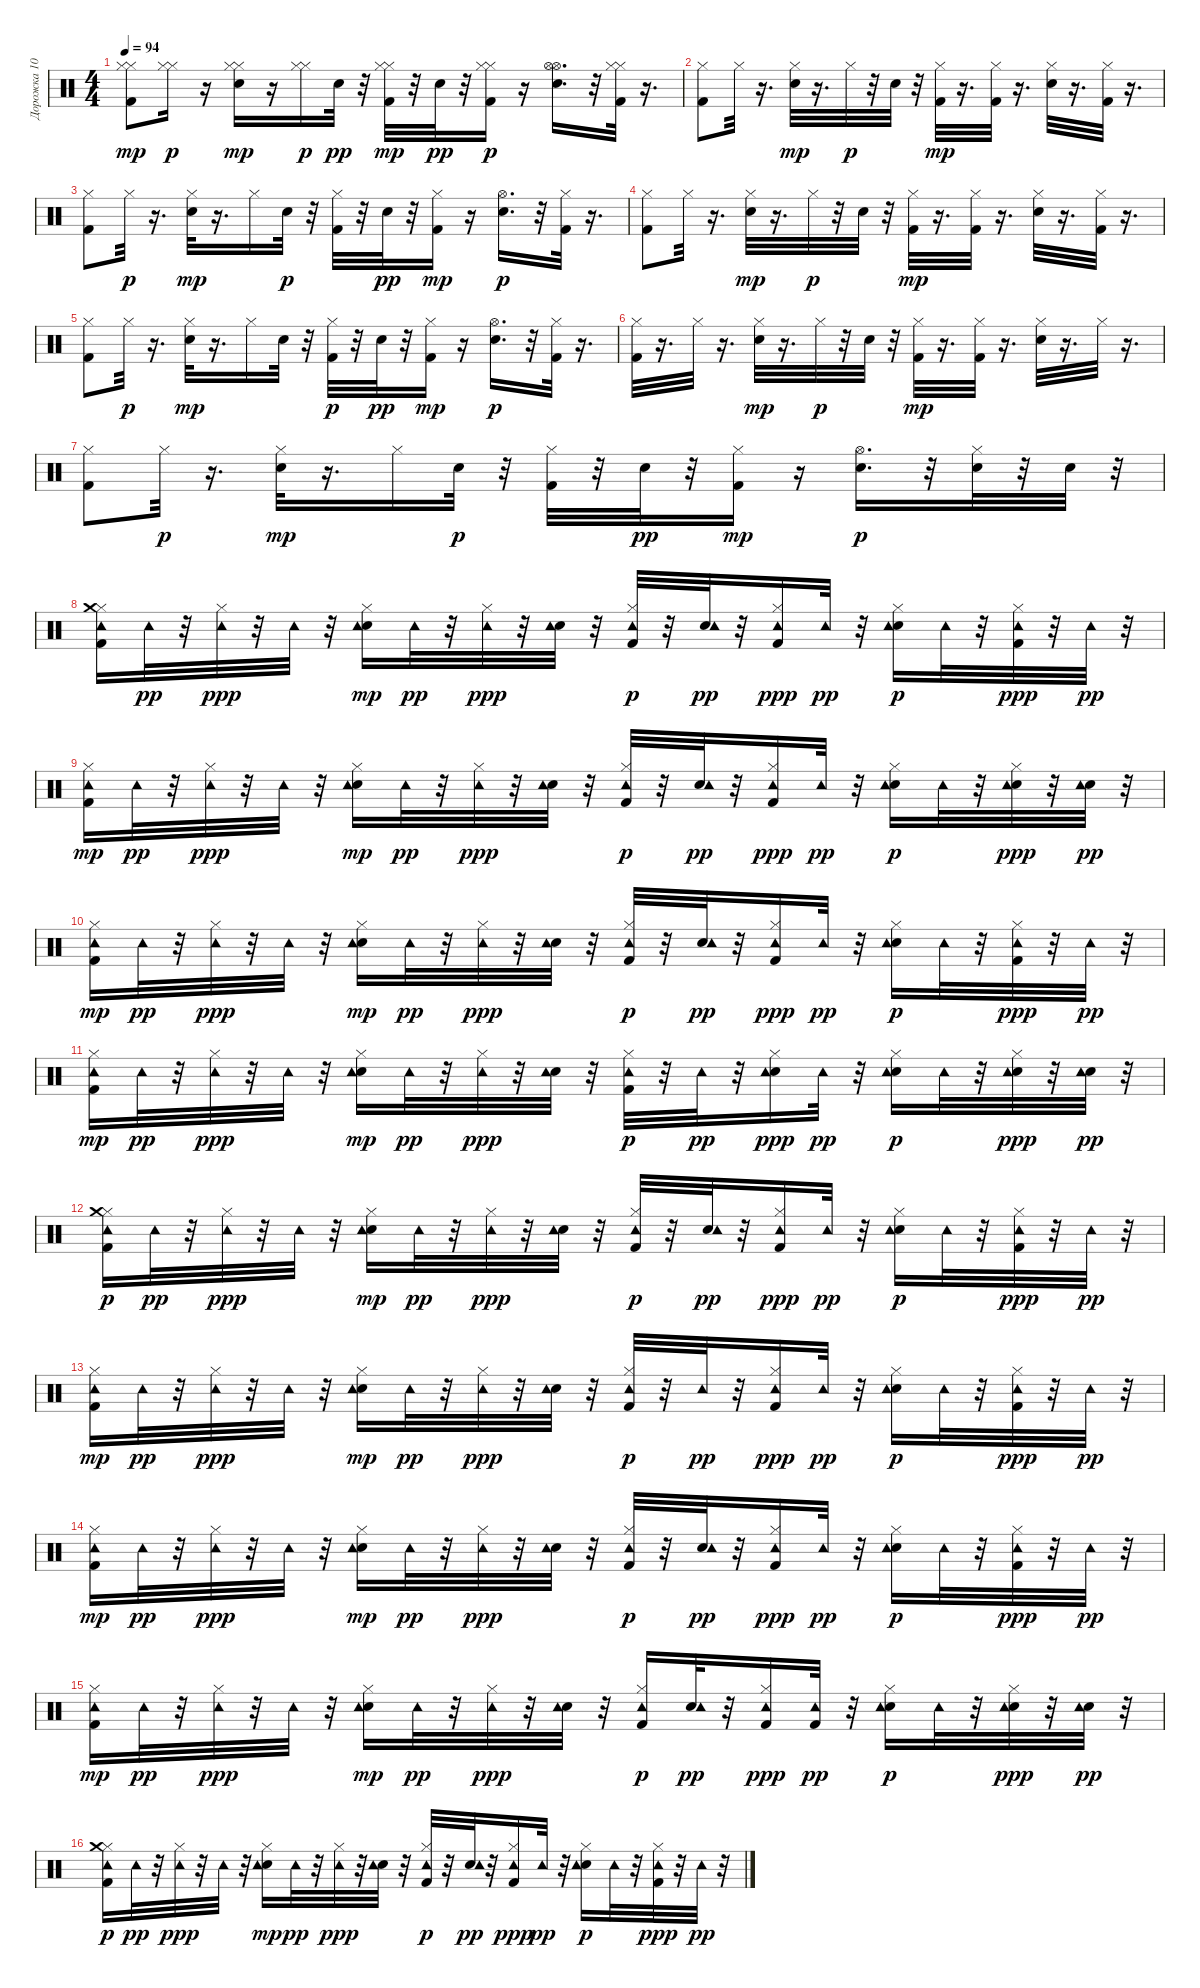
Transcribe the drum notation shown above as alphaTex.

\track ("Дорожка 10" "Дорожка 10") {instrument percussion}
\staff {score}
\articulation defaults
\ts (4 4)
\tempo 94
\clef neutral
\ks c
("Kick (hit) 2" "Hi-Hat (closed)" "Hi-Hat (closed)").8{dy mp} ("Hi-Hat (closed)" "Hi-Hat (closed)").16{dy p} r.16 ("Electric Snare (hit)" "Hi-Hat (closed)" "Hi-Hat (closed)").16{dy mp} r.16 ("Hi-Hat (closed)" "Hi-Hat (closed)").16{dy p} "Electric Snare (hit)".32{dy pp} r.32 ("Kick (hit) 2" "Hi-Hat (closed)" "Hi-Hat (closed)").32{dy mp} r.32 "Electric Snare (hit)".32{dy pp} r.32 ("Kick (hit) 2" "Hi-Hat (closed)" "Hi-Hat (closed)").16{dy p} r.16 ("Electric Snare (hit)" "Hi-Hat (open)" "Hi-Hat (open)").16{d} r.32 ("Kick (hit) 2" "Hi-Hat (closed)" "Hi-Hat (closed)").32 r.16{d} |
("Kick (hit) 2" "Hi-Hat (closed)").8 "Hi-Hat (closed)".32 r.16{d} ("Electric Snare (hit)" "Hi-Hat (closed)").32{dy mp} r.16{d} "Hi-Hat (closed)".32{dy p} r.32 "Electric Snare (hit)".32 r.32 ("Kick (hit) 2" "Hi-Hat (closed)").32{dy mp} r.16{d} ("Kick (hit) 2" "Hi-Hat (closed)").32 r.16{d} ("Electric Snare (hit)" "Hi-Hat (closed)").32 r.16{d} ("Kick (hit) 2" "Hi-Hat (closed)").32 r.16{d} |
("Kick (hit) 2" "Hi-Hat (closed)").8 "Hi-Hat (closed)".32{dy p} r.16{d} ("Electric Snare (hit)" "Hi-Hat (closed)").32{dy mp} r.16{d} "Hi-Hat (closed)".16 "Electric Snare (hit)".32{dy p} r.32 ("Kick (hit) 2" "Hi-Hat (closed)").32 r.32 "Electric Snare (hit)".32{dy pp} r.32 ("Kick (hit) 2" "Hi-Hat (closed)").16{dy mp} r.16 ("Electric Snare (hit)" "Hi-Hat (open)").16{d dy p} r.32 ("Kick (hit) 2" "Hi-Hat (closed)").32 r.16{d} |
("Kick (hit) 2" "Hi-Hat (closed)").8 "Hi-Hat (closed)".32 r.16{d} ("Electric Snare (hit)" "Hi-Hat (closed)").32{dy mp} r.16{d} "Hi-Hat (closed)".32{dy p} r.32 "Electric Snare (hit)".32 r.32 ("Kick (hit) 2" "Hi-Hat (closed)").32{dy mp} r.16{d} ("Kick (hit) 2" "Hi-Hat (closed)").32 r.16{d} ("Electric Snare (hit)" "Hi-Hat (closed)").32 r.16{d} ("Kick (hit) 2" "Hi-Hat (closed)").32 r.16{d} |
("Kick (hit) 2" "Hi-Hat (closed)").8 "Hi-Hat (closed)".32{dy p} r.16{d} ("Electric Snare (hit)" "Hi-Hat (closed)").32{dy mp} r.16{d} "Hi-Hat (closed)".16 "Electric Snare (hit)".32 r.32 ("Kick (hit) 2" "Hi-Hat (closed)").32{dy p} r.32 "Electric Snare (hit)".32{dy pp} r.32 ("Kick (hit) 2" "Hi-Hat (closed)").16{dy mp} r.16 ("Electric Snare (hit)" "Hi-Hat (open)").16{d dy p} r.32 ("Kick (hit) 2" "Hi-Hat (closed)").32 r.16{d} |
("Kick (hit) 2" "Hi-Hat (closed)").32 r.16{d} "Hi-Hat (closed)".32 r.16{d} ("Electric Snare (hit)" "Hi-Hat (closed)").32{dy mp} r.16{d} "Hi-Hat (closed)".32{dy p} r.32 "Electric Snare (hit)".32 r.32 ("Kick (hit) 2" "Hi-Hat (closed)").32{dy mp} r.16{d} ("Kick (hit) 2" "Hi-Hat (closed)").32 r.16{d} ("Electric Snare (hit)" "Hi-Hat (closed)").32 r.16{d} "Hi-Hat (closed)".32 r.16{d} |
("Kick (hit) 2" "Hi-Hat (closed)").8 "Hi-Hat (closed)".32{dy p} r.16{d} ("Electric Snare (hit)" "Hi-Hat (closed)").32{dy mp} r.16{d} "Hi-Hat (closed)".16 "Electric Snare (hit)".32{dy p} r.32 ("Kick (hit) 2" "Hi-Hat (closed)").32 r.32 "Electric Snare (hit)".32{dy pp} r.32 ("Kick (hit) 2" "Hi-Hat (closed)").16{dy mp} r.16 ("Electric Snare (hit)" "Hi-Hat (open)").16{d dy p} r.32 ("Electric Snare (hit)" "Hi-Hat (closed)").32 r.32 "Electric Snare (hit)".32 r.32 |
("Kick (hit) 2" "Hi-Hat (closed)" "Tambourine (hit)" "Crash medium (hit)").16 "Tambourine (hit)".32{dy pp} r.32 ("Hi-Hat (closed)" "Tambourine (hit)").32{dy ppp} r.32 "Tambourine (hit)".32 r.32 ("Electric Snare (hit)" "Hi-Hat (closed)" "Tambourine (hit)").16{dy mp} "Tambourine (hit)".32{dy pp} r.32 ("Hi-Hat (closed)" "Tambourine (hit)").32{dy ppp} r.32 ("Electric Snare (hit)" "Tambourine (hit)").32 r.32 ("Kick (hit) 2" "Hi-Hat (closed)" "Tambourine (hit)").32{dy p} r.32 ("Electric Snare (hit)" "Tambourine (hit)").32{dy pp} r.32 ("Kick (hit) 2" "Hi-Hat (closed)" "Tambourine (hit)").16{dy ppp} "Tambourine (hit)".32{dy pp} r.32 ("Electric Snare (hit)" "Hi-Hat (closed)" "Tambourine (hit)").16{dy p} "Tambourine (hit)".32 r.32 ("Kick (hit) 2" "Hi-Hat (closed)" "Tambourine (hit)").32{dy ppp} r.32 "Tambourine (hit)".32{dy pp} r.32 |
("Kick (hit) 2" "Hi-Hat (closed)" "Tambourine (hit)").16{dy mp} "Tambourine (hit)".32{dy pp} r.32 ("Hi-Hat (closed)" "Tambourine (hit)").32{dy ppp} r.32 "Tambourine (hit)".32 r.32 ("Electric Snare (hit)" "Hi-Hat (closed)" "Tambourine (hit)").16{dy mp} "Tambourine (hit)".32{dy pp} r.32 ("Hi-Hat (closed)" "Tambourine (hit)").32{dy ppp} r.32 ("Electric Snare (hit)" "Tambourine (hit)").32 r.32 ("Kick (hit) 2" "Hi-Hat (closed)" "Tambourine (hit)").32{dy p} r.32 ("Electric Snare (hit)" "Tambourine (hit)").32{dy pp} r.32 ("Kick (hit) 2" "Hi-Hat (closed)" "Tambourine (hit)").16{dy ppp} "Tambourine (hit)".32{dy pp} r.32 ("Electric Snare (hit)" "Hi-Hat (closed)" "Tambourine (hit)").16{dy p} "Tambourine (hit)".32 r.32 ("Electric Snare (hit)" "Hi-Hat (closed)" "Tambourine (hit)").32{dy ppp} r.32 ("Electric Snare (hit)" "Tambourine (hit)").32{dy pp} r.32 |
("Kick (hit) 2" "Hi-Hat (closed)" "Tambourine (hit)").16{dy mp} "Tambourine (hit)".32{dy pp} r.32 ("Hi-Hat (closed)" "Tambourine (hit)").32{dy ppp} r.32 "Tambourine (hit)".32 r.32 ("Electric Snare (hit)" "Hi-Hat (closed)" "Tambourine (hit)").16{dy mp} "Tambourine (hit)".32{dy pp} r.32 ("Hi-Hat (closed)" "Tambourine (hit)").32{dy ppp} r.32 ("Electric Snare (hit)" "Tambourine (hit)").32 r.32 ("Kick (hit) 2" "Hi-Hat (closed)" "Tambourine (hit)").32{dy p} r.32 ("Electric Snare (hit)" "Tambourine (hit)").32{dy pp} r.32 ("Kick (hit) 2" "Hi-Hat (closed)" "Tambourine (hit)").16{dy ppp} "Tambourine (hit)".32{dy pp} r.32 ("Electric Snare (hit)" "Hi-Hat (closed)" "Tambourine (hit)").16{dy p} "Tambourine (hit)".32 r.32 ("Kick (hit) 2" "Hi-Hat (closed)" "Tambourine (hit)").32{dy ppp} r.32 "Tambourine (hit)".32{dy pp} r.32 |
("Kick (hit) 2" "Hi-Hat (closed)" "Tambourine (hit)").16{dy mp} "Tambourine (hit)".32{dy pp} r.32 ("Hi-Hat (closed)" "Tambourine (hit)").32{dy ppp} r.32 "Tambourine (hit)".32 r.32 ("Electric Snare (hit)" "Hi-Hat (closed)" "Tambourine (hit)").16{dy mp} "Tambourine (hit)".32{dy pp} r.32 ("Hi-Hat (closed)" "Tambourine (hit)").32{dy ppp} r.32 ("Electric Snare (hit)" "Tambourine (hit)").32 r.32 ("Kick (hit) 2" "Hi-Hat (closed)" "Tambourine (hit)").32{dy p} r.32 "Tambourine (hit)".32{dy pp} r.32 ("Electric Snare (hit)" "Hi-Hat (closed)" "Tambourine (hit)").16{dy ppp} "Tambourine (hit)".32{dy pp} r.32 ("Electric Snare (hit)" "Hi-Hat (closed)" "Tambourine (hit)").16{dy p} "Tambourine (hit)".32 r.32 ("Electric Snare (hit)" "Hi-Hat (closed)" "Tambourine (hit)").32{dy ppp} r.32 ("Electric Snare (hit)" "Tambourine (hit)").32{dy pp} r.32 |
("Kick (hit) 2" "Hi-Hat (closed)" "Tambourine (hit)" "Crash medium (hit)").16{dy p} "Tambourine (hit)".32{dy pp} r.32 ("Hi-Hat (closed)" "Tambourine (hit)").32{dy ppp} r.32 "Tambourine (hit)".32 r.32 ("Electric Snare (hit)" "Hi-Hat (closed)" "Tambourine (hit)").16{dy mp} "Tambourine (hit)".32{dy pp} r.32 ("Hi-Hat (closed)" "Tambourine (hit)").32{dy ppp} r.32 ("Electric Snare (hit)" "Tambourine (hit)").32 r.32 ("Kick (hit) 2" "Hi-Hat (closed)" "Tambourine (hit)").32{dy p} r.32 ("Electric Snare (hit)" "Tambourine (hit)").32{dy pp} r.32 ("Kick (hit) 2" "Hi-Hat (closed)" "Tambourine (hit)").16{dy ppp} "Tambourine (hit)".32{dy pp} r.32 ("Electric Snare (hit)" "Hi-Hat (closed)" "Tambourine (hit)").16{dy p} "Tambourine (hit)".32 r.32 ("Kick (hit) 2" "Hi-Hat (closed)" "Tambourine (hit)").32{dy ppp} r.32 "Tambourine (hit)".32{dy pp} r.32 |
("Kick (hit) 2" "Hi-Hat (closed)" "Tambourine (hit)").16{dy mp} "Tambourine (hit)".32{dy pp} r.32 ("Hi-Hat (closed)" "Tambourine (hit)").32{dy ppp} r.32 "Tambourine (hit)".32 r.32 ("Electric Snare (hit)" "Hi-Hat (closed)" "Tambourine (hit)").16{dy mp} "Tambourine (hit)".32{dy pp} r.32 ("Hi-Hat (closed)" "Tambourine (hit)").32{dy ppp} r.32 ("Electric Snare (hit)" "Tambourine (hit)").32 r.32 ("Kick (hit) 2" "Hi-Hat (closed)" "Tambourine (hit)").32{dy p} r.32 "Tambourine (hit)".32{dy pp} r.32 ("Kick (hit) 2" "Hi-Hat (closed)" "Tambourine (hit)").16{dy ppp} "Tambourine (hit)".32{dy pp} r.32 ("Electric Snare (hit)" "Hi-Hat (closed)" "Tambourine (hit)").16{dy p} "Tambourine (hit)".32 r.32 ("Kick (hit) 2" "Hi-Hat (closed)" "Tambourine (hit)").32{dy ppp} r.32 "Tambourine (hit)".32{dy pp} r.32 |
("Kick (hit) 2" "Hi-Hat (closed)" "Tambourine (hit)").16{dy mp} "Tambourine (hit)".32{dy pp} r.32 ("Hi-Hat (closed)" "Tambourine (hit)").32{dy ppp} r.32 "Tambourine (hit)".32 r.32 ("Electric Snare (hit)" "Hi-Hat (closed)" "Tambourine (hit)").16{dy mp} "Tambourine (hit)".32{dy pp} r.32 ("Hi-Hat (closed)" "Tambourine (hit)").32{dy ppp} r.32 ("Electric Snare (hit)" "Tambourine (hit)").32 r.32 ("Kick (hit) 2" "Hi-Hat (closed)" "Tambourine (hit)").32{dy p} r.32 ("Electric Snare (hit)" "Tambourine (hit)").32{dy pp} r.32 ("Kick (hit) 2" "Hi-Hat (closed)" "Tambourine (hit)").16{dy ppp} "Tambourine (hit)".32{dy pp} r.32 ("Electric Snare (hit)" "Hi-Hat (closed)" "Tambourine (hit)").16{dy p} "Tambourine (hit)".32 r.32 ("Kick (hit) 2" "Hi-Hat (closed)" "Tambourine (hit)").32{dy ppp} r.32 "Tambourine (hit)".32{dy pp} r.32 |
("Kick (hit) 2" "Hi-Hat (closed)" "Tambourine (hit)").16{dy mp} "Tambourine (hit)".32{dy pp} r.32 ("Hi-Hat (closed)" "Tambourine (hit)").32{dy ppp} r.32 "Tambourine (hit)".32 r.32 ("Electric Snare (hit)" "Hi-Hat (closed)" "Tambourine (hit)").16{dy mp} "Tambourine (hit)".32{dy pp} r.32 ("Hi-Hat (closed)" "Tambourine (hit)").32{dy ppp} r.32 ("Electric Snare (hit)" "Tambourine (hit)").32 r.32 ("Kick (hit) 2" "Hi-Hat (closed)" "Tambourine (hit)").16{dy p} ("Electric Snare (hit)" "Tambourine (hit)").32{dy pp} r.32 ("Kick (hit) 2" "Hi-Hat (closed)" "Tambourine (hit)").16{dy ppp} ("Kick (hit) 2" "Tambourine (hit)").32{dy pp} r.32 ("Electric Snare (hit)" "Hi-Hat (closed)" "Tambourine (hit)").16{dy p} "Tambourine (hit)".32 r.32 ("Electric Snare (hit)" "Hi-Hat (closed)" "Tambourine (hit)").32{dy ppp} r.32 ("Electric Snare (hit)" "Tambourine (hit)").32{dy pp} r.32 |
("Kick (hit) 2" "Hi-Hat (closed)" "Tambourine (hit)" "Crash medium (hit)").16{dy p} "Tambourine (hit)".32{dy pp} r.32 ("Hi-Hat (closed)" "Tambourine (hit)").32{dy ppp} r.32 "Tambourine (hit)".32 r.32 ("Electric Snare (hit)" "Hi-Hat (closed)" "Tambourine (hit)").16{dy mp} "Tambourine (hit)".32{dy pp} r.32 ("Hi-Hat (closed)" "Tambourine (hit)").32{dy ppp} r.32 ("Electric Snare (hit)" "Tambourine (hit)").32 r.32 ("Kick (hit) 2" "Hi-Hat (closed)" "Tambourine (hit)").32{dy p} r.32 ("Electric Snare (hit)" "Tambourine (hit)").32{dy pp} r.32 ("Kick (hit) 2" "Hi-Hat (closed)" "Tambourine (hit)").16{dy ppp} "Tambourine (hit)".32{dy pp} r.32 ("Electric Snare (hit)" "Hi-Hat (closed)" "Tambourine (hit)").16{dy p} "Tambourine (hit)".32 r.32 ("Kick (hit) 2" "Hi-Hat (closed)" "Tambourine (hit)").32{dy ppp} r.32 "Tambourine (hit)".32{dy pp} r.32
